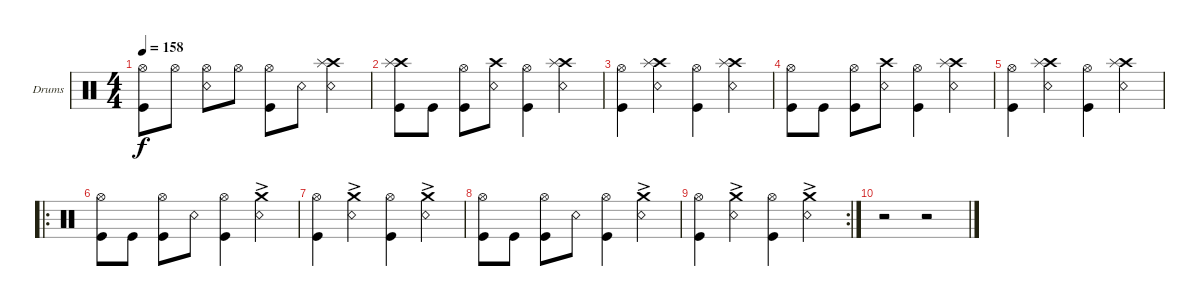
\bracketExtendMode groupsimilarinstruments
\firstSystemTrackNameOrientation horizontal
\otherSystemsTrackNameOrientation horizontal
\track ("Drumkit" "Drums") {instrument percussion}
\staff {score}
\articulation defaults
\ts (4 4)
\tempo 158
\clef neutral
\ks c
("Hi-Hat (open)" "Kick (hit)").8{dy f} "Hi-Hat (open)".8 ("Hi-Hat (open)" "Snare (rim shot)").8 "Hi-Hat (open)".8 ("Hi-Hat (open)" "Kick (hit)").8 "Snare (rim shot)".8 ("Snare (rim shot)" "Crash high (hit)" "Splash (hit)").4 |
("Kick (hit)" "Crash high (hit)" "Splash (hit)").8 "Kick (hit)".8 ("Hi-Hat (open)" "Kick (hit)").8 ("Snare (rim shot)" "Crash high (hit)").8 ("Hi-Hat (open)" "Kick (hit)").4 ("Snare (rim shot)" "Crash high (hit)" "Splash (hit)").4 |
("Hi-Hat (open)" "Kick (hit)").4 ("Snare (rim shot)" "Crash high (hit)" "Splash (hit)").4 ("Hi-Hat (open)" "Kick (hit)").4 ("Snare (rim shot)" "Crash high (hit)" "Splash (hit)").4 |
("Hi-Hat (open)" "Kick (hit)").8 "Kick (hit)".8 ("Hi-Hat (open)" "Kick (hit)").8 ("Snare (rim shot)" "Crash high (hit)").8 ("Hi-Hat (open)" "Kick (hit)").4 ("Snare (rim shot)" "Crash high (hit)" "Splash (hit)").4 |
("Hi-Hat (open)" "Kick (hit)").4 ("Snare (rim shot)" "Crash high (hit)" "Splash (hit)").4 ("Hi-Hat (open)" "Kick (hit)").4 ("Snare (rim shot)" "Crash high (hit)" "Splash (hit)").4 |
\ro
("Hi-Hat (open)" "Kick (hit)").8 "Kick (hit)".8 ("Hi-Hat (open)" "Kick (hit)").8 "Snare (rim shot)".8 ("Hi-Hat (open)" "Kick (hit)").4 ("Crash medium (hit)"{ac} "Snare (rim shot)").4 |
("Hi-Hat (open)" "Kick (hit)").4 ("Crash medium (hit)"{ac} "Snare (rim shot)").4 ("Hi-Hat (open)" "Kick (hit)").4 ("Crash medium (hit)"{ac} "Snare (rim shot)").4 |
("Hi-Hat (open)" "Kick (hit)").8 "Kick (hit)".8 ("Hi-Hat (open)" "Kick (hit)").8 "Snare (rim shot)".8 ("Hi-Hat (open)" "Kick (hit)").4 ("Crash medium (hit)"{ac} "Snare (rim shot)").4 |
\rc 2
("Hi-Hat (open)" "Kick (hit)").4 ("Crash medium (hit)"{ac} "Snare (rim shot)").4 ("Hi-Hat (open)" "Kick (hit)").4 ("Crash medium (hit)"{ac} "Snare (rim shot)").4 |
r.2 r.2
